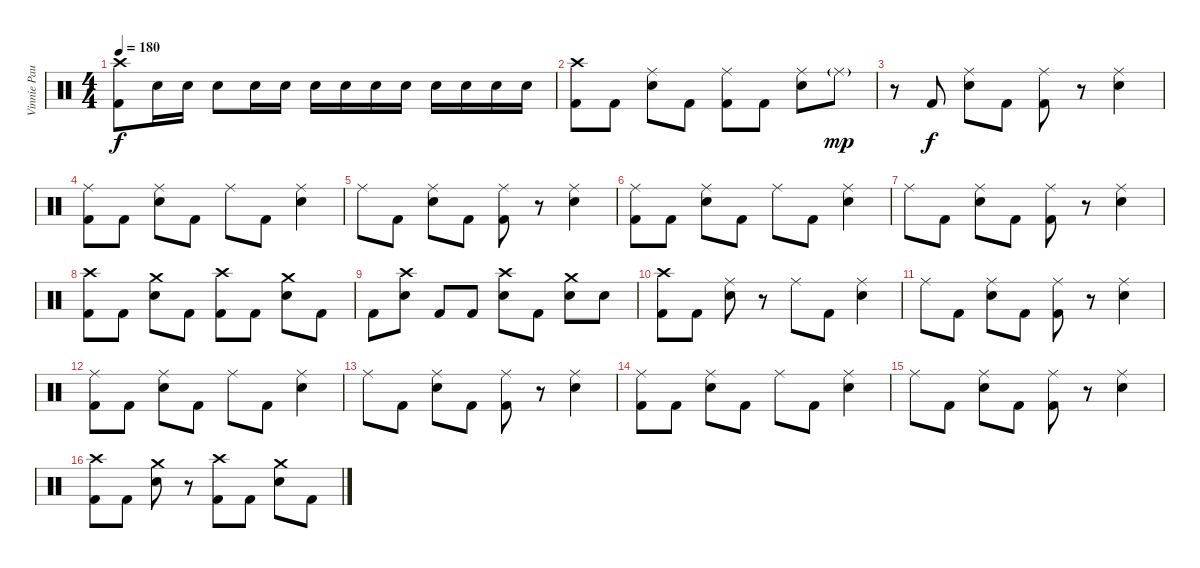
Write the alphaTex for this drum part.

\track ("Vinnie Paul" "Vinnie Pau") {instrument percussion}
\staff {score}
\articulation defaults
\ts (4 4)
\tempo 180
\clef neutral
\ks c
("Crash high (hit)" "Kick (hit) 2").8{dy f} "Electric Snare (hit)".16 "Electric Snare (hit)".16 "Electric Snare (hit)".8 "Electric Snare (hit)".16 "Electric Snare (hit)".16 "Electric Snare (hit)".16 "Electric Snare (hit)".16 "Electric Snare (hit)".16 "Electric Snare (hit)".16 "Electric Snare (hit)".16 "Electric Snare (hit)".16 "Electric Snare (hit)".16 "Electric Snare (hit)".16 |
("Crash high (hit)" "Kick (hit) 2").8 "Kick (hit) 2".8 ("Ride (middle)" "Electric Snare (hit)").8 "Kick (hit) 2".8 ("Ride (middle)" "Kick (hit) 2").8 "Kick (hit) 2".8 ("Ride (middle)" "Electric Snare (hit)").8 "Ride (middle)"{g}.8{dy mp} |
r.8 "Kick (hit) 2".8{dy f} ("Ride (middle)" "Electric Snare (hit)").8 "Kick (hit) 2".8 ("Ride (middle)" "Kick (hit) 2").8 r.8 ("Ride (middle)" "Electric Snare (hit)").4 |
("Ride (middle)" "Kick (hit) 2").8 "Kick (hit) 2".8 ("Ride (middle)" "Electric Snare (hit)").8 "Kick (hit) 2".8 "Ride (middle)".8 "Kick (hit) 2".8 ("Ride (middle)" "Electric Snare (hit)").4 |
"Ride (middle)".8 "Kick (hit) 2".8 ("Ride (middle)" "Electric Snare (hit)").8 "Kick (hit) 2".8 ("Ride (middle)" "Kick (hit) 2").8 r.8 ("Ride (middle)" "Electric Snare (hit)").4 |
("Ride (middle)" "Kick (hit) 2").8 "Kick (hit) 2".8 ("Ride (middle)" "Electric Snare (hit)").8 "Kick (hit) 2".8 "Ride (middle)".8 "Kick (hit) 2".8 ("Ride (middle)" "Electric Snare (hit)").4 |
"Ride (middle)".8 "Kick (hit) 2".8 ("Ride (middle)" "Electric Snare (hit)").8 "Kick (hit) 2".8 ("Ride (middle)" "Kick (hit) 2").8 r.8 ("Ride (middle)" "Electric Snare (hit)").4 |
("Crash high (hit)" "Kick (hit) 2").8 "Kick (hit) 2".8 ("Crash medium (hit)" "Electric Snare (hit)").8 "Kick (hit) 2".8 ("Crash high (hit)" "Kick (hit) 2").8 "Kick (hit) 2".8 ("Crash medium (hit)" "Electric Snare (hit)").8 "Kick (hit) 2".8 |
"Kick (hit) 2".8 ("Crash high (hit)" "Electric Snare (hit)").8 "Kick (hit) 2".8 "Kick (hit) 2".8 ("Crash high (hit)" "Electric Snare (hit)").8 "Kick (hit) 2".8 ("Crash medium (hit)" "Electric Snare (hit)").8 "Electric Snare (hit)".8 |
("Crash high (hit)" "Kick (hit) 2").8 "Kick (hit) 2".8 ("Ride (middle)" "Electric Snare (hit)").8 r.8 "Ride (middle)".8 "Kick (hit) 2".8 ("Ride (middle)" "Electric Snare (hit)").4 |
"Ride (middle)".8 "Kick (hit) 2".8 ("Ride (middle)" "Electric Snare (hit)").8 "Kick (hit) 2".8 ("Ride (middle)" "Kick (hit) 2").8 r.8 ("Ride (middle)" "Electric Snare (hit)").4 |
("Ride (middle)" "Kick (hit) 2").8 "Kick (hit) 2".8 ("Ride (middle)" "Electric Snare (hit)").8 "Kick (hit) 2".8 "Ride (middle)".8 "Kick (hit) 2".8 ("Ride (middle)" "Electric Snare (hit)").4 |
"Ride (middle)".8 "Kick (hit) 2".8 ("Ride (middle)" "Electric Snare (hit)").8 "Kick (hit) 2".8 ("Ride (middle)" "Kick (hit) 2").8 r.8 ("Ride (middle)" "Electric Snare (hit)").4 |
("Ride (middle)" "Kick (hit) 2").8 "Kick (hit) 2".8 ("Ride (middle)" "Electric Snare (hit)").8 "Kick (hit) 2".8 "Ride (middle)".8 "Kick (hit) 2".8 ("Ride (middle)" "Electric Snare (hit)").4 |
"Ride (middle)".8 "Kick (hit) 2".8 ("Ride (middle)" "Electric Snare (hit)").8 "Kick (hit) 2".8 ("Ride (middle)" "Kick (hit) 2").8 r.8 ("Ride (middle)" "Electric Snare (hit)").4 |
("Crash high (hit)" "Kick (hit) 2").8 "Kick (hit) 2".8 ("Crash medium (hit)" "Electric Snare (hit)").8 r.8 ("Crash high (hit)" "Kick (hit) 2").8 "Kick (hit) 2".8 ("Crash medium (hit)" "Electric Snare (hit)").8 "Kick (hit) 2".8
